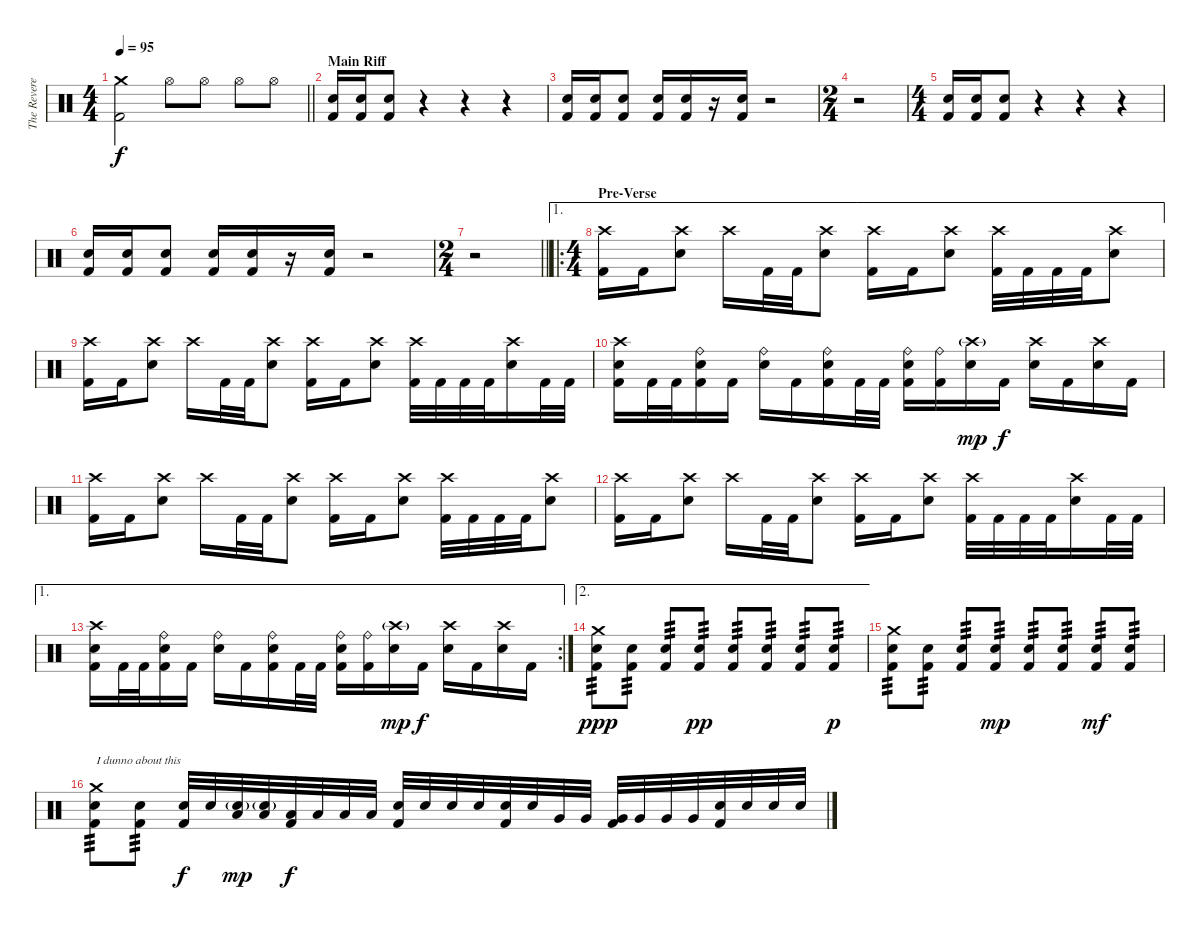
\track ("The Reverend" "The Revere") {instrument percussion}
\staff {score}
\articulation defaults
\ts (4 4)
\tempo 95
\clef neutral
\barLineRight lightlight
\ks c
("Crash medium (hit)" "Kick (hit) 2").2{dy f} "Hi-Hat (open)".8 "Hi-Hat (open)".8 "Hi-Hat (open)".8 "Hi-Hat (open)".8 |
\section ("" "Main Riff")
("Electric Snare (hit)" "Kick (hit) 2").16 ("Electric Snare (hit)" "Kick (hit) 2").16 ("Electric Snare (hit)" "Kick (hit) 2").8 r.4 r.4 r.4 |
("Electric Snare (hit)" "Kick (hit) 2").16 ("Electric Snare (hit)" "Kick (hit) 2").16 ("Electric Snare (hit)" "Kick (hit) 2").8 ("Electric Snare (hit)" "Kick (hit) 2").16 ("Electric Snare (hit)" "Kick (hit) 2").16 r.16 ("Electric Snare (hit)" "Kick (hit) 2").16 r.2 |
\ts (2 4)
r.2 |
\ts (4 4)
("Electric Snare (hit)" "Kick (hit) 2").16 ("Electric Snare (hit)" "Kick (hit) 2").16 ("Electric Snare (hit)" "Kick (hit) 2").8 r.4 r.4 r.4 |
("Electric Snare (hit)" "Kick (hit) 2").16 ("Electric Snare (hit)" "Kick (hit) 2").16 ("Electric Snare (hit)" "Kick (hit) 2").8 ("Electric Snare (hit)" "Kick (hit) 2").16 ("Electric Snare (hit)" "Kick (hit) 2").16 r.16 ("Electric Snare (hit)" "Kick (hit) 2").16 r.2 |
\ts (2 4)
\barLineRight lightlight
r.2 |
\ae 1
\ro
\ts (4 4)
\section ("" "Pre-Verse")
("Crash high (hit)" "Kick (hit) 2").16 "Kick (hit) 2".16 ("Crash high (hit)" "Electric Snare (hit)").8 "Crash high (hit)".16 "Kick (hit) 2".32 "Kick (hit) 2".32 ("Crash high (hit)" "Electric Snare (hit)").8 ("Crash high (hit)" "Kick (hit) 2").16 "Kick (hit) 2".16 ("Crash high (hit)" "Electric Snare (hit)").8 ("Crash high (hit)" "Kick (hit) 2").32 "Kick (hit) 2".32 "Kick (hit) 2".32 "Kick (hit) 2".32 ("Crash high (hit)" "Electric Snare (hit)").8 |
("Crash high (hit)" "Kick (hit) 2").16 "Kick (hit) 2".16 ("Crash high (hit)" "Electric Snare (hit)").8 "Crash high (hit)".16 "Kick (hit) 2".32 "Kick (hit) 2".32 ("Crash high (hit)" "Electric Snare (hit)").8 ("Crash high (hit)" "Kick (hit) 2").16 "Kick (hit) 2".16 ("Crash high (hit)" "Electric Snare (hit)").8 ("Crash high (hit)" "Kick (hit) 2").32 "Kick (hit) 2".32 "Kick (hit) 2".32 "Kick (hit) 2".32 ("Crash high (hit)" "Electric Snare (hit)").16 "Kick (hit) 2".32 "Kick (hit) 2".32 |
("Crash high (hit)" "Electric Snare (hit)" "Kick (hit) 2").16 "Kick (hit) 2".32 "Kick (hit) 2".32 ("Ride (bell)" "Electric Snare (hit)" "Kick (hit) 2").16 "Kick (hit) 2".16 ("Ride (bell)" "Electric Snare (hit)").16 "Kick (hit) 2".16 ("Ride (bell)" "Electric Snare (hit)" "Kick (hit) 2").16 "Kick (hit) 2".32 "Kick (hit) 2".32 ("Ride (bell)" "Electric Snare (hit)" "Kick (hit) 2").16 ("Ride (bell)" "Kick (hit) 2").16 ("Crash high (hit)"{g} "Electric Snare (hit)").16{dy mp} "Kick (hit) 2".16{dy f} ("Crash high (hit)" "Electric Snare (hit)").16 "Kick (hit) 2".16 ("Crash high (hit)" "Electric Snare (hit)").16 "Kick (hit) 2".16 |
("Crash high (hit)" "Kick (hit) 2").16 "Kick (hit) 2".16 ("Crash high (hit)" "Electric Snare (hit)").8 "Crash high (hit)".16 "Kick (hit) 2".32 "Kick (hit) 2".32 ("Crash high (hit)" "Electric Snare (hit)").8 ("Crash high (hit)" "Kick (hit) 2").16 "Kick (hit) 2".16 ("Crash high (hit)" "Electric Snare (hit)").8 ("Crash high (hit)" "Kick (hit) 2").32 "Kick (hit) 2".32 "Kick (hit) 2".32 "Kick (hit) 2".32 ("Crash high (hit)" "Electric Snare (hit)").8 |
("Crash high (hit)" "Kick (hit) 2").16 "Kick (hit) 2".16 ("Crash high (hit)" "Electric Snare (hit)").8 "Crash high (hit)".16 "Kick (hit) 2".32 "Kick (hit) 2".32 ("Crash high (hit)" "Electric Snare (hit)").8 ("Crash high (hit)" "Kick (hit) 2").16 "Kick (hit) 2".16 ("Crash high (hit)" "Electric Snare (hit)").8 ("Crash high (hit)" "Kick (hit) 2").32 "Kick (hit) 2".32 "Kick (hit) 2".32 "Kick (hit) 2".32 ("Crash high (hit)" "Electric Snare (hit)").16 "Kick (hit) 2".32 "Kick (hit) 2".32 |
\ae 1
\rc 2
("Crash high (hit)" "Electric Snare (hit)" "Kick (hit) 2").16 "Kick (hit) 2".32 "Kick (hit) 2".32 ("Ride (bell)" "Electric Snare (hit)" "Kick (hit) 2").16 "Kick (hit) 2".16 ("Ride (bell)" "Electric Snare (hit)").16 "Kick (hit) 2".16 ("Ride (bell)" "Electric Snare (hit)" "Kick (hit) 2").16 "Kick (hit) 2".32 "Kick (hit) 2".32 ("Ride (bell)" "Electric Snare (hit)" "Kick (hit) 2").16 ("Ride (bell)" "Kick (hit) 2").16 ("Crash high (hit)"{g} "Electric Snare (hit)").16{dy mp} "Kick (hit) 2".16{dy f} ("Crash high (hit)" "Electric Snare (hit)").16 "Kick (hit) 2".16 ("Crash high (hit)" "Electric Snare (hit)").16 "Kick (hit) 2".16 |
\ae 2
("Crash medium (hit)" "Electric Snare (hit)" "Kick (hit) 2").8{tp 3 dy ppp} ("Electric Snare (hit)" "Kick (hit) 2").8{tp 3} ("Electric Snare (hit)" "Kick (hit) 2").8{tp 3} ("Electric Snare (hit)" "Kick (hit) 2").8{tp 3 dy pp} ("Electric Snare (hit)" "Kick (hit) 2").8{tp 3} ("Electric Snare (hit)" "Kick (hit) 2").8{tp 3} ("Electric Snare (hit)" "Kick (hit) 2").8{tp 3} ("Electric Snare (hit)" "Kick (hit) 2").8{tp 3 dy p} |
("Crash medium (hit)" "Electric Snare (hit)" "Kick (hit) 2").8{tp 3} ("Electric Snare (hit)" "Kick (hit) 2").8{tp 3} ("Electric Snare (hit)" "Kick (hit) 2").8{tp 3} ("Electric Snare (hit)" "Kick (hit) 2").8{tp 3 dy mp} ("Electric Snare (hit)" "Kick (hit) 2").8{tp 3} ("Electric Snare (hit)" "Kick (hit) 2").8{tp 3} ("Electric Snare (hit)" "Kick (hit) 2").8{tp 3 dy mf} ("Electric Snare (hit)" "Kick (hit) 2").8{tp 3} |
("Crash medium (hit)" "Electric Snare (hit)" "Kick (hit) 2").8{txt "I dunno about this" tp 3} ("Electric Snare (hit)" "Kick (hit) 2").8{tp 3} ("Electric Snare (hit)" "Kick (hit) 2").32{dy f} "Electric Snare (hit)".32 ("Low Tom (hit)" "Electric Snare (hit)"{g}).32{dy mp} ("Low Tom (hit)" "Electric Snare (hit)"{g}).32 ("Low Tom (hit)" "Kick (hit) 2").32{dy f} "Low Tom (hit)".32 "Low Tom (hit)".32 "Low Tom (hit)".32 ("Electric Snare (hit)" "Kick (hit) 2").32 "Electric Snare (hit)".32 "Electric Snare (hit)".32 "Electric Snare (hit)".32 ("Electric Snare (hit)" "Kick (hit) 2").32 "Electric Snare (hit)".32 "Very Low Tom (hit)".32 "Very Low Tom (hit)".32 ("Very Low Tom (hit)" "Kick (hit) 2").32 "Very Low Tom (hit)".32 "Very Low Tom (hit)".32 "Very Low Tom (hit)".32 ("Electric Snare (hit)" "Kick (hit) 2").32 "Electric Snare (hit)".32 "Electric Snare (hit)".32 "Electric Snare (hit)".32
